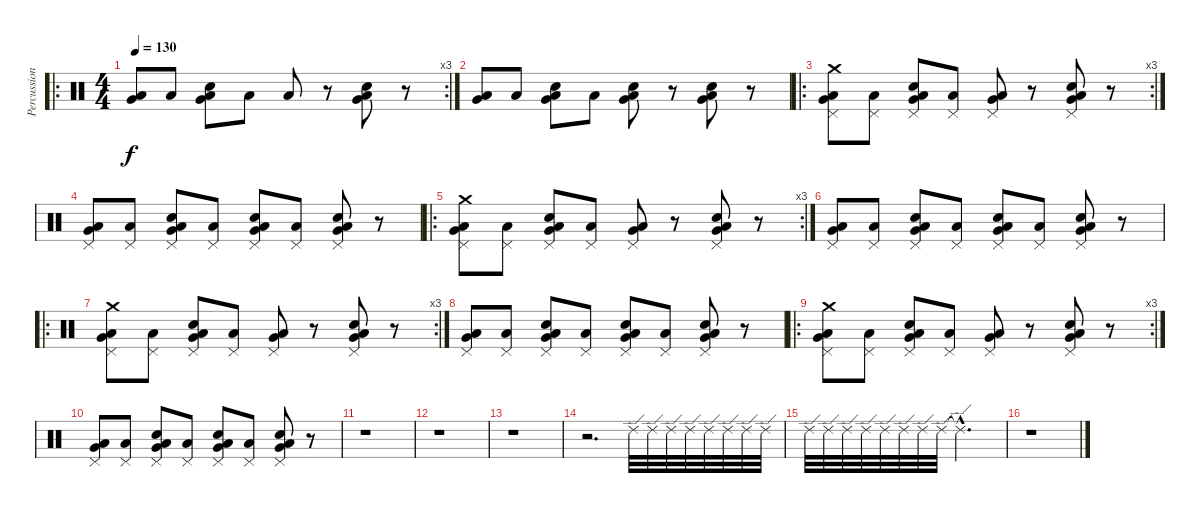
\track ("Percussions" "Percussion") {instrument percussion}
\staff {score}
\articulation defaults
\ro
\rc 3
\ts (4 4)
\tempo 130
\clef neutral
\ks c
("Low Floor Tom (hit)" "Very Low Tom (hit)").8{dy f} "Low Floor Tom (hit)".8 ("Low Floor Tom (hit)" "Snare (hit) 2" "Very Low Tom (hit)").8 "Low Floor Tom (hit)".8 "Low Floor Tom (hit)".8 r.8 ("Low Floor Tom (hit)" "Snare (hit) 2" "Very Low Tom (hit)").8 r.8 |
("Low Floor Tom (hit)" "Very Low Tom (hit)").8 "Low Floor Tom (hit)".8 ("Low Floor Tom (hit)" "Snare (hit) 2" "Very Low Tom (hit)").8 "Low Floor Tom (hit)".8 ("Low Floor Tom (hit)" "Snare (hit) 2" "Very Low Tom (hit)").8 r.8 ("Low Floor Tom (hit)" "Snare (hit) 2" "Very Low Tom (hit)").8 r.8 |
\ro
\rc 3
("Low Floor Tom (hit)" "Very Low Tom (hit)" "Pedal Hi-Hat (hit)" "Crash medium (hit)").8 ("Low Floor Tom (hit)" "Pedal Hi-Hat (hit)").8 ("Low Floor Tom (hit)" "Snare (hit) 2" "Very Low Tom (hit)" "Pedal Hi-Hat (hit)").8 ("Low Floor Tom (hit)" "Pedal Hi-Hat (hit)").8 ("Low Floor Tom (hit)" "Very Low Tom (hit)" "Pedal Hi-Hat (hit)").8 r.8 ("Low Floor Tom (hit)" "Snare (hit) 2" "Very Low Tom (hit)" "Pedal Hi-Hat (hit)").8 r.8 |
("Low Floor Tom (hit)" "Very Low Tom (hit)" "Pedal Hi-Hat (hit)").8 ("Low Floor Tom (hit)" "Pedal Hi-Hat (hit)").8 ("Low Floor Tom (hit)" "Snare (hit) 2" "Very Low Tom (hit)" "Pedal Hi-Hat (hit)").8 ("Low Floor Tom (hit)" "Pedal Hi-Hat (hit)").8 ("Low Floor Tom (hit)" "Snare (hit) 2" "Very Low Tom (hit)" "Pedal Hi-Hat (hit)").8 ("Low Floor Tom (hit)" "Pedal Hi-Hat (hit)").8 ("Low Floor Tom (hit)" "Snare (hit) 2" "Very Low Tom (hit)" "Pedal Hi-Hat (hit)").8 r.8 |
\ro
\rc 3
("Low Floor Tom (hit)" "Very Low Tom (hit)" "Pedal Hi-Hat (hit)" "Crash medium (hit)").8 ("Low Floor Tom (hit)" "Pedal Hi-Hat (hit)").8 ("Low Floor Tom (hit)" "Snare (hit) 2" "Very Low Tom (hit)" "Pedal Hi-Hat (hit)").8 ("Low Floor Tom (hit)" "Pedal Hi-Hat (hit)").8 ("Low Floor Tom (hit)" "Very Low Tom (hit)" "Pedal Hi-Hat (hit)").8 r.8 ("Low Floor Tom (hit)" "Snare (hit) 2" "Very Low Tom (hit)" "Pedal Hi-Hat (hit)").8 r.8 |
("Low Floor Tom (hit)" "Very Low Tom (hit)" "Pedal Hi-Hat (hit)").8 ("Low Floor Tom (hit)" "Pedal Hi-Hat (hit)").8 ("Low Floor Tom (hit)" "Snare (hit) 2" "Very Low Tom (hit)" "Pedal Hi-Hat (hit)").8 ("Low Floor Tom (hit)" "Pedal Hi-Hat (hit)").8 ("Low Floor Tom (hit)" "Snare (hit) 2" "Very Low Tom (hit)" "Pedal Hi-Hat (hit)").8 ("Low Floor Tom (hit)" "Pedal Hi-Hat (hit)").8 ("Low Floor Tom (hit)" "Snare (hit) 2" "Very Low Tom (hit)" "Pedal Hi-Hat (hit)").8 r.8 |
\ro
\rc 3
("Low Floor Tom (hit)" "Very Low Tom (hit)" "Pedal Hi-Hat (hit)" "Crash medium (hit)").8 ("Low Floor Tom (hit)" "Pedal Hi-Hat (hit)").8 ("Low Floor Tom (hit)" "Snare (hit) 2" "Very Low Tom (hit)" "Pedal Hi-Hat (hit)").8 ("Low Floor Tom (hit)" "Pedal Hi-Hat (hit)").8 ("Low Floor Tom (hit)" "Very Low Tom (hit)" "Pedal Hi-Hat (hit)").8 r.8 ("Low Floor Tom (hit)" "Snare (hit) 2" "Very Low Tom (hit)" "Pedal Hi-Hat (hit)").8 r.8 |
("Low Floor Tom (hit)" "Very Low Tom (hit)" "Pedal Hi-Hat (hit)").8 ("Low Floor Tom (hit)" "Pedal Hi-Hat (hit)").8 ("Low Floor Tom (hit)" "Snare (hit) 2" "Very Low Tom (hit)" "Pedal Hi-Hat (hit)").8 ("Low Floor Tom (hit)" "Pedal Hi-Hat (hit)").8 ("Low Floor Tom (hit)" "Snare (hit) 2" "Very Low Tom (hit)" "Pedal Hi-Hat (hit)").8 ("Low Floor Tom (hit)" "Pedal Hi-Hat (hit)").8 ("Low Floor Tom (hit)" "Snare (hit) 2" "Very Low Tom (hit)" "Pedal Hi-Hat (hit)").8 r.8 |
\ro
\rc 3
("Low Floor Tom (hit)" "Very Low Tom (hit)" "Pedal Hi-Hat (hit)" "Crash medium (hit)").8 ("Low Floor Tom (hit)" "Pedal Hi-Hat (hit)").8 ("Low Floor Tom (hit)" "Snare (hit) 2" "Very Low Tom (hit)" "Pedal Hi-Hat (hit)").8 ("Low Floor Tom (hit)" "Pedal Hi-Hat (hit)").8 ("Low Floor Tom (hit)" "Very Low Tom (hit)" "Pedal Hi-Hat (hit)").8 r.8 ("Low Floor Tom (hit)" "Snare (hit) 2" "Very Low Tom (hit)" "Pedal Hi-Hat (hit)").8 r.8 |
("Low Floor Tom (hit)" "Very Low Tom (hit)" "Pedal Hi-Hat (hit)").8 ("Low Floor Tom (hit)" "Pedal Hi-Hat (hit)").8 ("Low Floor Tom (hit)" "Snare (hit) 2" "Very Low Tom (hit)" "Pedal Hi-Hat (hit)").8 ("Low Floor Tom (hit)" "Pedal Hi-Hat (hit)").8 ("Low Floor Tom (hit)" "Snare (hit) 2" "Very Low Tom (hit)" "Pedal Hi-Hat (hit)").8 ("Low Floor Tom (hit)" "Pedal Hi-Hat (hit)").8 ("Low Floor Tom (hit)" "Snare (hit) 2" "Very Low Tom (hit)" "Pedal Hi-Hat (hit)").8 r.8 |
r.1 |
r.1 |
r.1 |
r.2{d} "Ride (edge) 2".32 "Ride (edge) 2".32 "Ride (edge) 2".32 "Ride (edge) 2".32 "Ride (edge) 2".32 "Ride (edge) 2".32 "Ride (edge) 2".32 "Ride (edge) 2".32 |
"Ride (edge) 2".32 "Ride (edge) 2".32 "Ride (edge) 2".32 "Ride (edge) 2".32 "Ride (edge) 2".32 "Ride (edge) 2".32 "Ride (edge) 2".32 "Ride (edge) 2".32 "Ride (edge) 2"{hac t}.2{d} |
r.1
